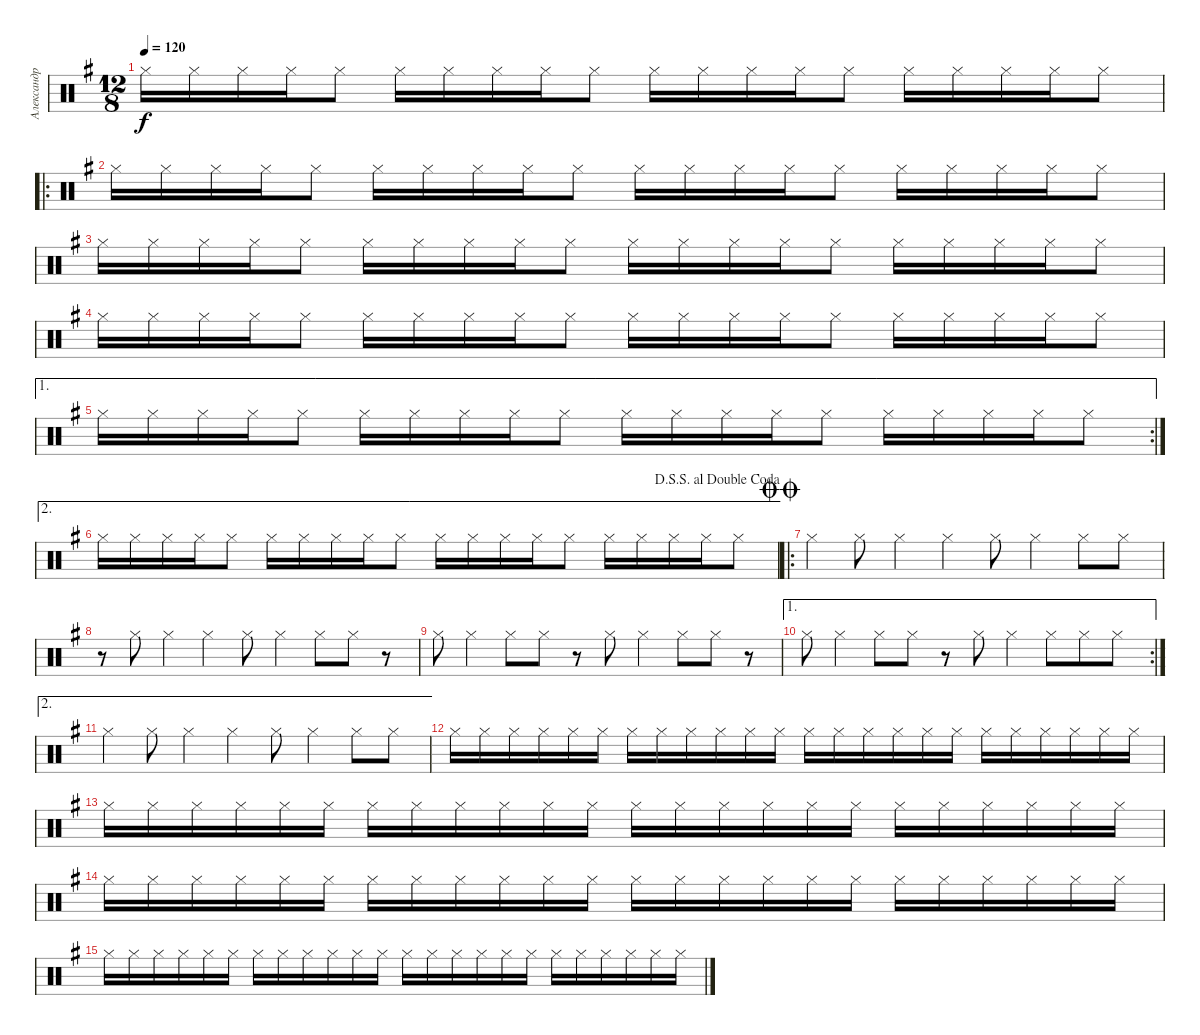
\track ("Александр Манякин" "Александр ") {instrument percussion}
\staff {score}
\articulation defaults
\ts (12 8)
\tempo 120
\clef neutral
\ks g "Hi-Hat (closed)".16{dy f} "Hi-Hat (closed)".16 "Hi-Hat (closed)".16 "Hi-Hat (closed)".16 "Hi-Hat (closed)".8 "Hi-Hat (closed)".16 "Hi-Hat (closed)".16 "Hi-Hat (closed)".16 "Hi-Hat (closed)".16 "Hi-Hat (closed)".8 "Hi-Hat (closed)".16 "Hi-Hat (closed)".16 "Hi-Hat (closed)".16 "Hi-Hat (closed)".16 "Hi-Hat (closed)".8 "Hi-Hat (closed)".16 "Hi-Hat (closed)".16 "Hi-Hat (closed)".16 "Hi-Hat (closed)".16 "Hi-Hat (closed)".8
|
\ro "Hi-Hat (closed)".16 "Hi-Hat (closed)".16 "Hi-Hat (closed)".16 "Hi-Hat (closed)".16 "Hi-Hat (closed)".8 "Hi-Hat (closed)".16 "Hi-Hat (closed)".16 "Hi-Hat (closed)".16 "Hi-Hat (closed)".16 "Hi-Hat (closed)".8 "Hi-Hat (closed)".16 "Hi-Hat (closed)".16 "Hi-Hat (closed)".16 "Hi-Hat (closed)".16 "Hi-Hat (closed)".8 "Hi-Hat (closed)".16 "Hi-Hat (closed)".16 "Hi-Hat (closed)".16 "Hi-Hat (closed)".16 "Hi-Hat (closed)".8
|
"Hi-Hat (closed)".16 "Hi-Hat (closed)".16 "Hi-Hat (closed)".16 "Hi-Hat (closed)".16 "Hi-Hat (closed)".8 "Hi-Hat (closed)".16 "Hi-Hat (closed)".16 "Hi-Hat (closed)".16 "Hi-Hat (closed)".16 "Hi-Hat (closed)".8 "Hi-Hat (closed)".16 "Hi-Hat (closed)".16 "Hi-Hat (closed)".16 "Hi-Hat (closed)".16 "Hi-Hat (closed)".8 "Hi-Hat (closed)".16 "Hi-Hat (closed)".16 "Hi-Hat (closed)".16 "Hi-Hat (closed)".16 "Hi-Hat (closed)".8 |
"Hi-Hat (closed)".16 "Hi-Hat (closed)".16 "Hi-Hat (closed)".16 "Hi-Hat (closed)".16 "Hi-Hat (closed)".8 "Hi-Hat (closed)".16 "Hi-Hat (closed)".16 "Hi-Hat (closed)".16 "Hi-Hat (closed)".16 "Hi-Hat (closed)".8 "Hi-Hat (closed)".16 "Hi-Hat (closed)".16 "Hi-Hat (closed)".16 "Hi-Hat (closed)".16 "Hi-Hat (closed)".8 "Hi-Hat (closed)".16 "Hi-Hat (closed)".16 "Hi-Hat (closed)".16 "Hi-Hat (closed)".16 "Hi-Hat (closed)".8 |
\ae 1
\rc 2 "Hi-Hat (closed)".16 "Hi-Hat (closed)".16 "Hi-Hat (closed)".16 "Hi-Hat (closed)".16 "Hi-Hat (closed)".8 "Hi-Hat (closed)".16 "Hi-Hat (closed)".16 "Hi-Hat (closed)".16 "Hi-Hat (closed)".16 "Hi-Hat (closed)".8 "Hi-Hat (closed)".16 "Hi-Hat (closed)".16 "Hi-Hat (closed)".16 "Hi-Hat (closed)".16 "Hi-Hat (closed)".8 "Hi-Hat (closed)".16 "Hi-Hat (closed)".16 "Hi-Hat (closed)".16 "Hi-Hat (closed)".16 "Hi-Hat (closed)".8
|
\ae 2
\jump dalsegnosegnoaldoublecoda "Hi-Hat (closed)".16 "Hi-Hat (closed)".16 "Hi-Hat (closed)".16 "Hi-Hat (closed)".16 "Hi-Hat (closed)".8 "Hi-Hat (closed)".16 "Hi-Hat (closed)".16 "Hi-Hat (closed)".16 "Hi-Hat (closed)".16 "Hi-Hat (closed)".8 "Hi-Hat (closed)".16 "Hi-Hat (closed)".16 "Hi-Hat (closed)".16 "Hi-Hat (closed)".16 "Hi-Hat (closed)".8 "Hi-Hat (closed)".16 "Hi-Hat (closed)".16 "Hi-Hat (closed)".16 "Hi-Hat (closed)".16 "Hi-Hat (closed)".8
|
\ro
\jump doublecoda "Hi-Hat (closed)".4 "Hi-Hat (closed)".8 "Hi-Hat (closed)".4 "Hi-Hat (closed)".4 "Hi-Hat (closed)".8 "Hi-Hat (closed)".4 "Hi-Hat (closed)".8 "Hi-Hat (closed)".8
|
r.8 "Hi-Hat (closed)".8 "Hi-Hat (closed)".4 "Hi-Hat (closed)".4 "Hi-Hat (closed)".8 "Hi-Hat (closed)".4 "Hi-Hat (closed)".8 "Hi-Hat (closed)".8 r.8 |
"Hi-Hat (closed)".8 "Hi-Hat (closed)".4 "Hi-Hat (closed)".8 "Hi-Hat (closed)".8 r.8 "Hi-Hat (closed)".8 "Hi-Hat (closed)".4 "Hi-Hat (closed)".8 "Hi-Hat (closed)".8 r.8 |
\ae 1
\rc 2 "Hi-Hat (closed)".8 "Hi-Hat (closed)".4 "Hi-Hat (closed)".8 "Hi-Hat (closed)".8
r.8 "Hi-Hat (closed)".8 "Hi-Hat (closed)".4 "Hi-Hat (closed)".8 "Hi-Hat (closed)".8 "Hi-Hat (closed)".8 |
\ae 2 "Hi-Hat (closed)".4 "Hi-Hat (closed)".8 "Hi-Hat (closed)".4 "Hi-Hat (closed)".4 "Hi-Hat (closed)".8 "Hi-Hat (closed)".4 "Hi-Hat (closed)".8 "Hi-Hat (closed)".8
|
"Hi-Hat (closed)".16 "Hi-Hat (closed)".16 "Hi-Hat (closed)".16 "Hi-Hat (closed)".16 "Hi-Hat (closed)".16 "Hi-Hat (closed)".16 "Hi-Hat (closed)".16 "Hi-Hat (closed)".16 "Hi-Hat (closed)".16 "Hi-Hat (closed)".16 "Hi-Hat (closed)".16 "Hi-Hat (closed)".16 "Hi-Hat (closed)".16 "Hi-Hat (closed)".16 "Hi-Hat (closed)".16 "Hi-Hat (closed)".16 "Hi-Hat (closed)".16 "Hi-Hat (closed)".16 "Hi-Hat (closed)".16 "Hi-Hat (closed)".16 "Hi-Hat (closed)".16 "Hi-Hat (closed)".16 "Hi-Hat (closed)".16 "Hi-Hat (closed)".16 |
"Hi-Hat (closed)".16 "Hi-Hat (closed)".16 "Hi-Hat (closed)".16 "Hi-Hat (closed)".16 "Hi-Hat (closed)".16 "Hi-Hat (closed)".16 "Hi-Hat (closed)".16 "Hi-Hat (closed)".16 "Hi-Hat (closed)".16 "Hi-Hat (closed)".16 "Hi-Hat (closed)".16 "Hi-Hat (closed)".16 "Hi-Hat (closed)".16 "Hi-Hat (closed)".16 "Hi-Hat (closed)".16 "Hi-Hat (closed)".16 "Hi-Hat (closed)".16 "Hi-Hat (closed)".16 "Hi-Hat (closed)".16 "Hi-Hat (closed)".16 "Hi-Hat (closed)".16 "Hi-Hat (closed)".16 "Hi-Hat (closed)".16 "Hi-Hat (closed)".16 |
"Hi-Hat (closed)".16 "Hi-Hat (closed)".16 "Hi-Hat (closed)".16 "Hi-Hat (closed)".16 "Hi-Hat (closed)".16 "Hi-Hat (closed)".16 "Hi-Hat (closed)".16 "Hi-Hat (closed)".16 "Hi-Hat (closed)".16 "Hi-Hat (closed)".16 "Hi-Hat (closed)".16 "Hi-Hat (closed)".16 "Hi-Hat (closed)".16 "Hi-Hat (closed)".16 "Hi-Hat (closed)".16 "Hi-Hat (closed)".16 "Hi-Hat (closed)".16 "Hi-Hat (closed)".16 "Hi-Hat (closed)".16 "Hi-Hat (closed)".16 "Hi-Hat (closed)".16 "Hi-Hat (closed)".16 "Hi-Hat (closed)".16 "Hi-Hat (closed)".16 |
"Hi-Hat (closed)".16 "Hi-Hat (closed)".16 "Hi-Hat (closed)".16 "Hi-Hat (closed)".16 "Hi-Hat (closed)".16 "Hi-Hat (closed)".16 "Hi-Hat (closed)".16 "Hi-Hat (closed)".16 "Hi-Hat (closed)".16 "Hi-Hat (closed)".16 "Hi-Hat (closed)".16 "Hi-Hat (closed)".16 "Hi-Hat (closed)".16 "Hi-Hat (closed)".16 "Hi-Hat (closed)".16 "Hi-Hat (closed)".16 "Hi-Hat (closed)".16 "Hi-Hat (closed)".16 "Hi-Hat (closed)".16 "Hi-Hat (closed)".16 "Hi-Hat (closed)".16 "Hi-Hat (closed)".16 "Hi-Hat (closed)".16 "Hi-Hat (closed)".16
